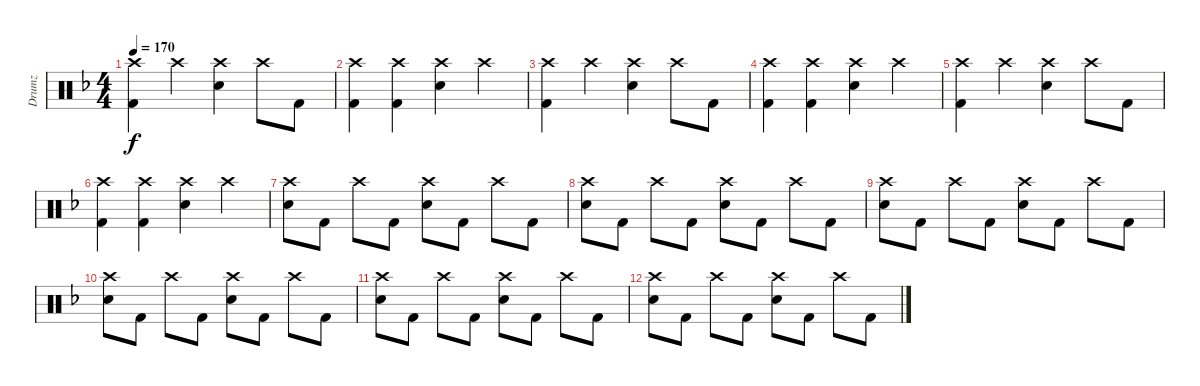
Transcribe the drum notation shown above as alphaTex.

\track ("Drumz" "Drumz") {instrument percussion}
\staff {score}
\articulation defaults
\ts (4 4)
\tempo 170
\clef neutral
\ks dminor
("Crash high (hit)" "Kick (hit) 2").4{dy f} "Crash high (hit)".4 ("Crash high (hit)" "Snare (hit) 2").4 "Crash high (hit)".8 "Kick (hit) 2".8 |
("Crash high (hit)" "Kick (hit) 2").4 ("Crash high (hit)" "Kick (hit) 2").4 ("Crash high (hit)" "Snare (hit) 2").4 "Crash high (hit)".4 |
("Crash high (hit)" "Kick (hit) 2").4 "Crash high (hit)".4 ("Crash high (hit)" "Snare (hit) 2").4 "Crash high (hit)".8 "Kick (hit) 2".8 |
("Crash high (hit)" "Kick (hit) 2").4 ("Crash high (hit)" "Kick (hit) 2").4 ("Crash high (hit)" "Snare (hit) 2").4 "Crash high (hit)".4 |
("Crash high (hit)" "Kick (hit) 2").4 "Crash high (hit)".4 ("Crash high (hit)" "Snare (hit) 2").4 "Crash high (hit)".8 "Kick (hit) 2".8 |
("Crash high (hit)" "Kick (hit) 2").4 ("Crash high (hit)" "Kick (hit) 2").4 ("Crash high (hit)" "Snare (hit) 2").4 "Crash high (hit)".4 |
("Crash high (hit)" "Snare (hit) 2").8 "Kick (hit) 2".8 "Crash high (hit)".8 "Kick (hit) 2".8 ("Crash high (hit)" "Snare (hit) 2").8 "Kick (hit) 2".8 "Crash high (hit)".8 "Kick (hit) 2".8 |
("Crash high (hit)" "Snare (hit) 2").8 "Kick (hit) 2".8 "Crash high (hit)".8 "Kick (hit) 2".8 ("Crash high (hit)" "Snare (hit) 2").8 "Kick (hit) 2".8 "Crash high (hit)".8 "Kick (hit) 2".8 |
("Crash high (hit)" "Snare (hit) 2").8 "Kick (hit) 2".8 "Crash high (hit)".8 "Kick (hit) 2".8 ("Crash high (hit)" "Snare (hit) 2").8 "Kick (hit) 2".8 "Crash high (hit)".8 "Kick (hit) 2".8 |
("Crash high (hit)" "Snare (hit) 2").8 "Kick (hit) 2".8 "Crash high (hit)".8 "Kick (hit) 2".8 ("Crash high (hit)" "Snare (hit) 2").8 "Kick (hit) 2".8 "Crash high (hit)".8 "Kick (hit) 2".8 |
("Crash high (hit)" "Snare (hit) 2").8 "Kick (hit) 2".8 "Crash high (hit)".8 "Kick (hit) 2".8 ("Crash high (hit)" "Snare (hit) 2").8 "Kick (hit) 2".8 "Crash high (hit)".8 "Kick (hit) 2".8 |
("Crash high (hit)" "Snare (hit) 2").8 "Kick (hit) 2".8 "Crash high (hit)".8 "Kick (hit) 2".8 ("Crash high (hit)" "Snare (hit) 2").8 "Kick (hit) 2".8 "Crash high (hit)".8 "Kick (hit) 2".8
